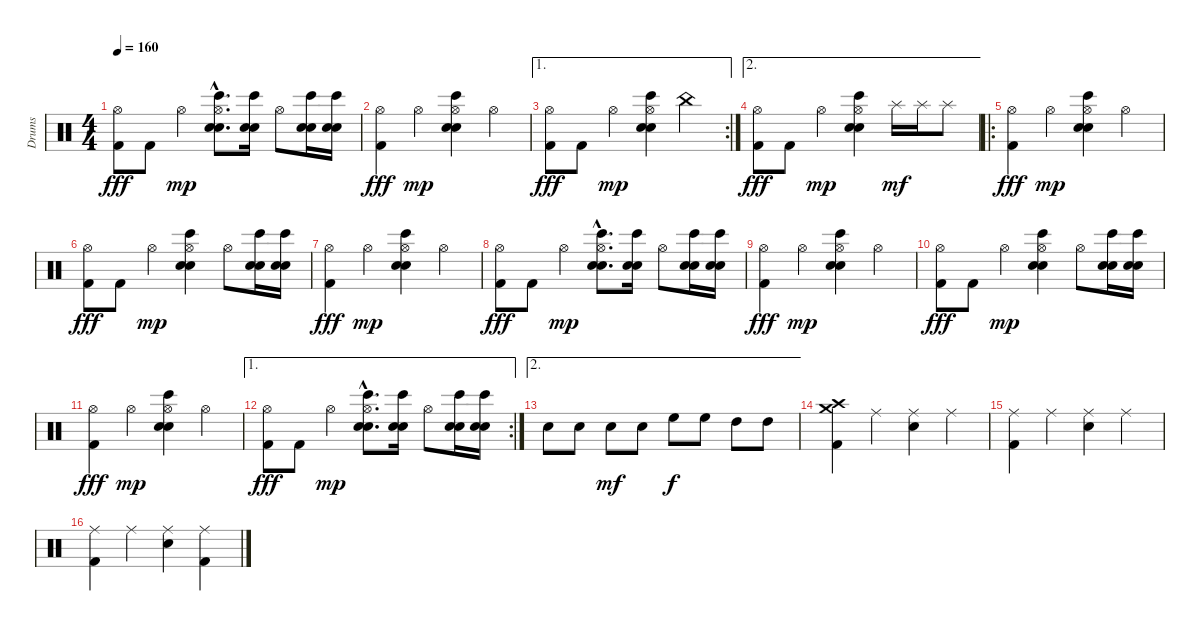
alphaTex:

\track ("Drums" "Drums") {instrument percussion}
\staff {score}
\articulation defaults
\ts (4 4)
\tempo 160
\clef neutral
\ks c
("Hi-Hat (open)" "Kick (hit) 2").8{dy fff} "Kick (hit) 2".8 "Hi-Hat (open)".4{dy mp} ("Hi-Hat (open)"{hac} "Bongo High (hit)"{hac} "Snare (hit) 2"{hac} "Electric Snare (hit)"{hac}).8{d} ("Bongo High (hit)" "Snare (hit) 2" "Electric Snare (hit)").16 "Hi-Hat (open)".8 ("Bongo High (hit)" "Snare (hit) 2" "Electric Snare (hit)").16 ("Bongo High (hit)" "Snare (hit) 2" "Electric Snare (hit)").16 |
("Hi-Hat (open)" "Kick (hit) 2").4{dy fff} "Hi-Hat (open)".4{dy mp} ("Hi-Hat (open)" "Bongo High (hit)" "Snare (hit) 2" "Electric Snare (hit)").4 "Hi-Hat (open)".4 |
\ae 1
\rc 2
("Hi-Hat (open)" "Kick (hit) 2").8{dy fff} "Kick (hit) 2".8 "Hi-Hat (open)".4{dy mp} ("Hi-Hat (open)" "Bongo High (hit)" "Snare (hit) 2" "Electric Snare (hit)").4 "China (hit)".4 |
\ae 2
("Hi-Hat (open)" "Kick (hit) 2").8{dy fff} "Kick (hit) 2".8 "Hi-Hat (open)".4{dy mp} ("Hi-Hat (open)" "Bongo High (hit)" "Snare (hit) 2" "Electric Snare (hit)").4 "Splash (hit)".16{dy mf} "Splash (hit)".16 "Splash (hit)".8 |
\ro
("Hi-Hat (open)" "Kick (hit) 2").4{dy fff} "Hi-Hat (open)".4{dy mp} ("Hi-Hat (open)" "Bongo High (hit)" "Snare (hit) 2" "Electric Snare (hit)").4 "Hi-Hat (open)".4 |
("Hi-Hat (open)" "Kick (hit) 2").8{dy fff} "Kick (hit) 2".8 "Hi-Hat (open)".4{dy mp} ("Hi-Hat (open)" "Bongo High (hit)" "Snare (hit) 2" "Electric Snare (hit)").4 "Hi-Hat (open)".8 ("Bongo High (hit)" "Snare (hit) 2" "Electric Snare (hit)").16 ("Bongo High (hit)" "Snare (hit) 2" "Electric Snare (hit)").16 |
("Hi-Hat (open)" "Kick (hit) 2").4{dy fff} "Hi-Hat (open)".4{dy mp} ("Hi-Hat (open)" "Bongo High (hit)" "Snare (hit) 2" "Electric Snare (hit)").4 "Hi-Hat (open)".4 |
("Hi-Hat (open)" "Kick (hit) 2").8{dy fff} "Kick (hit) 2".8 "Hi-Hat (open)".4{dy mp} ("Hi-Hat (open)"{hac} "Bongo High (hit)"{hac} "Snare (hit) 2"{hac} "Electric Snare (hit)"{hac}).8{d} ("Bongo High (hit)" "Snare (hit) 2" "Electric Snare (hit)").16 "Hi-Hat (open)".8 ("Bongo High (hit)" "Snare (hit) 2" "Electric Snare (hit)").16 ("Bongo High (hit)" "Snare (hit) 2" "Electric Snare (hit)").16 |
("Hi-Hat (open)" "Kick (hit) 2").4{dy fff} "Hi-Hat (open)".4{dy mp} ("Hi-Hat (open)" "Bongo High (hit)" "Snare (hit) 2" "Electric Snare (hit)").4 "Hi-Hat (open)".4 |
("Hi-Hat (open)" "Kick (hit) 2").8{dy fff} "Kick (hit) 2".8 "Hi-Hat (open)".4{dy mp} ("Hi-Hat (open)" "Bongo High (hit)" "Snare (hit) 2" "Electric Snare (hit)").4 "Hi-Hat (open)".8 ("Bongo High (hit)" "Snare (hit) 2" "Electric Snare (hit)").16 ("Bongo High (hit)" "Snare (hit) 2" "Electric Snare (hit)").16 |
("Hi-Hat (open)" "Kick (hit) 2").4{dy fff} "Hi-Hat (open)".4{dy mp} ("Hi-Hat (open)" "Bongo High (hit)" "Snare (hit) 2" "Electric Snare (hit)").4 "Hi-Hat (open)".4 |
\ae 1
\rc 2
("Hi-Hat (open)" "Kick (hit) 2").8{dy fff} "Kick (hit) 2".8 "Hi-Hat (open)".4{dy mp} ("Hi-Hat (open)"{hac} "Bongo High (hit)"{hac} "Snare (hit) 2"{hac} "Electric Snare (hit)"{hac}).8{d} ("Bongo High (hit)" "Snare (hit) 2" "Electric Snare (hit)").16 "Hi-Hat (open)".8 ("Bongo High (hit)" "Snare (hit) 2" "Electric Snare (hit)").16 ("Bongo High (hit)" "Snare (hit) 2" "Electric Snare (hit)").16 |
\ae 2 "Snare (hit) 2".8 "Snare (hit) 2".8 "Snare (hit) 2".8{dy mf} "Snare (hit) 2".8 "High Floor Tom (hit)".8{dy f} "High Floor Tom (hit)".8 "High Tom (hit)".8 "High Tom (hit)".8
|
("Crash high (hit)" "Crash medium (hit)" "Kick (hit) 2").4 "Ride (middle)".4 ("Ride (middle)" "Snare (hit) 2").4 "Ride (middle)".4 |
("Ride (middle)" "Kick (hit) 2").4 "Ride (middle)".4 ("Ride (middle)" "Snare (hit) 2").4 "Ride (middle)".4 |
("Ride (middle)" "Kick (hit) 2").4 "Ride (middle)".4 ("Ride (middle)" "Snare (hit) 2").4 ("Ride (middle)" "Kick (hit) 2").4
